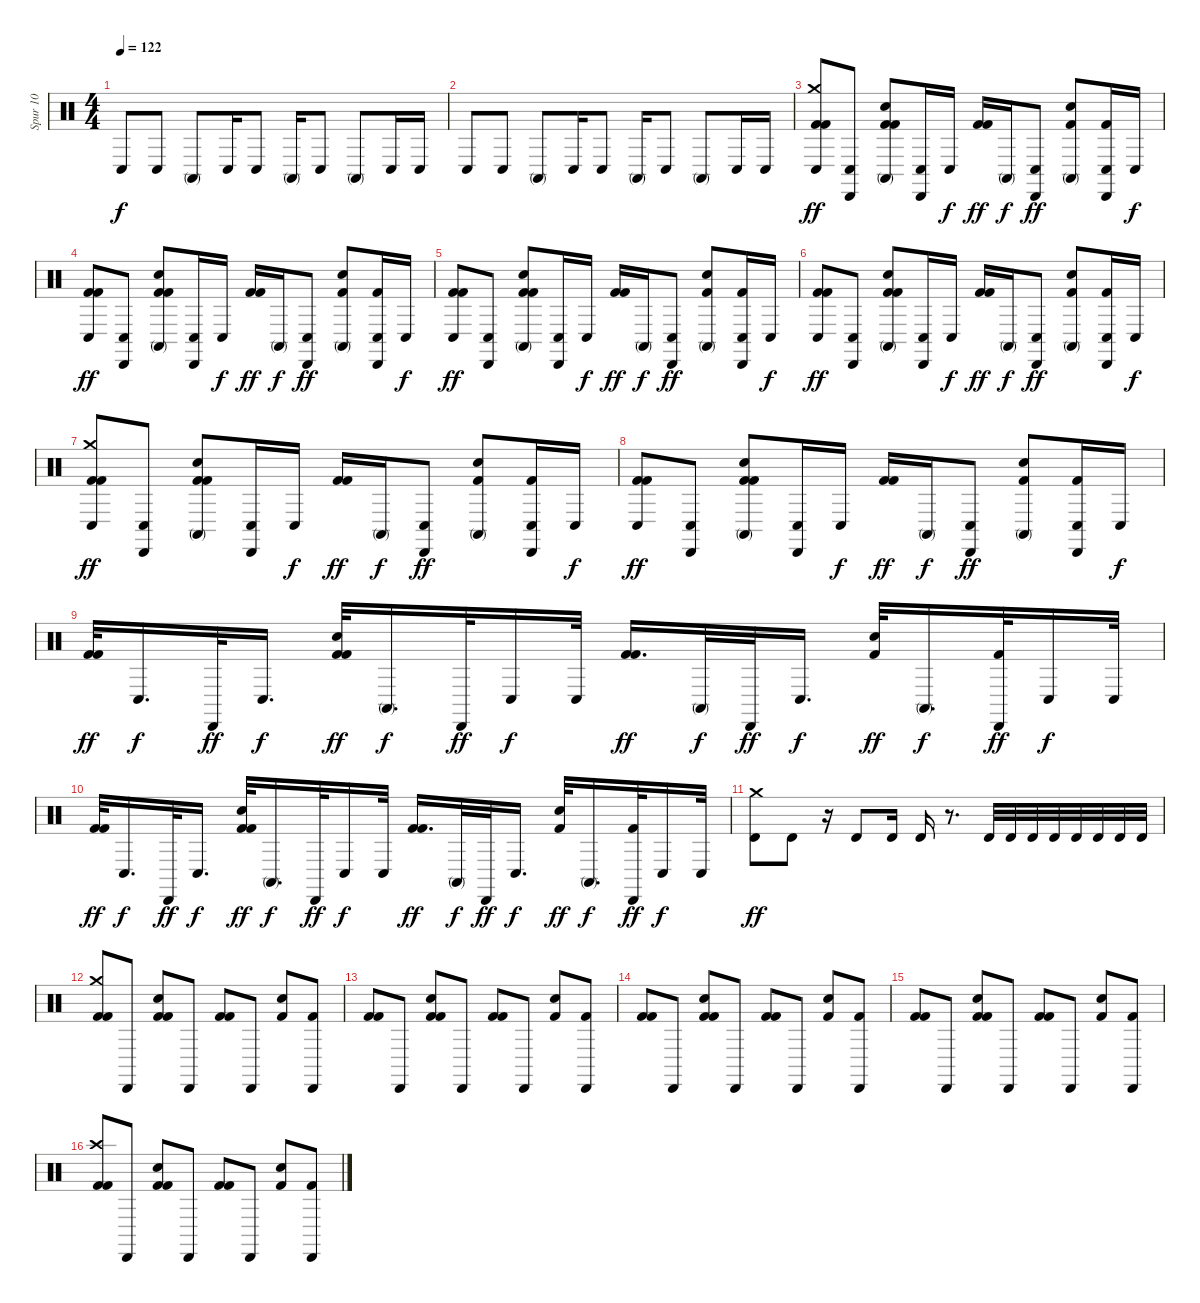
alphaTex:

\track ("Spur 10" "Spur 10") {instrument percussion}
\staff {score}
\articulation defaults
\ts (4 4)
\tempo 122
\clef neutral
\ks c "Conga low (hit)".8{dy f} "Conga low (hit)".8 "Conga high (mute)".8 "Conga low (hit)".16 "Conga low (hit)".8 "Conga high (mute)".16 "Conga low (hit)".8 "Conga high (mute)".8 "Conga low (hit)".16 "Conga low (hit)".16
|
"Conga low (hit)".8 "Conga low (hit)".8 "Conga high (mute)".8 "Conga low (hit)".16 "Conga low (hit)".8 "Conga high (mute)".16 "Conga low (hit)".8 "Conga high (mute)".8 "Conga low (hit)".16 "Conga low (hit)".16 |
("Crash medium (hit)" "Conga low (hit)" "Kick (hit) 2" "Kick (hit) 2").8{dy ff} ("Conga low (hit)" "Cabasa (hit)").8 ("Conga high (mute)" "Kick (hit) 2" "Kick (hit) 2" "Hand Clap (hit)").8 ("Conga low (hit)" "Cabasa (hit)").16 "Conga low (hit)".16{dy f} ("Kick (hit) 2" "Kick (hit) 2").16{dy ff} "Conga high (mute)".16{dy f} ("Conga low (hit)" "Cabasa (hit)").8{dy ff} ("Hand Clap (hit)" "Conga high (mute)" "Kick (hit) 2").8 ("Conga low (hit)" "Cabasa (hit)" "Kick (hit) 2").16 "Conga low (hit)".16{dy f} |
("Kick (hit) 2" "Kick (hit) 2" "Conga low (hit)").8{dy ff} ("Cabasa (hit)" "Conga low (hit)").8 ("Kick (hit) 2" "Kick (hit) 2" "Conga high (mute)" "Hand Clap (hit)").8 ("Cabasa (hit)" "Conga low (hit)").16 "Conga low (hit)".16{dy f} ("Kick (hit) 2" "Kick (hit) 2").16{dy ff} "Conga high (mute)".16{dy f} ("Cabasa (hit)" "Conga low (hit)").8{dy ff} ("Hand Clap (hit)" "Kick (hit) 2" "Conga high (mute)").8 ("Cabasa (hit)" "Conga low (hit)" "Kick (hit) 2").16 "Conga low (hit)".16{dy f} |
("Conga low (hit)" "Kick (hit) 2" "Kick (hit) 2").8{dy ff} ("Conga low (hit)" "Cabasa (hit)").8 ("Conga high (mute)" "Kick (hit) 2" "Kick (hit) 2" "Hand Clap (hit)").8 ("Conga low (hit)" "Cabasa (hit)").16 "Conga low (hit)".16{dy f} ("Kick (hit) 2" "Kick (hit) 2").16{dy ff} "Conga high (mute)".16{dy f} ("Conga low (hit)" "Cabasa (hit)").8{dy ff} ("Hand Clap (hit)" "Conga high (mute)" "Kick (hit) 2").8 ("Conga low (hit)" "Cabasa (hit)" "Kick (hit) 2").16 "Conga low (hit)".16{dy f} |
("Conga low (hit)" "Kick (hit) 2" "Kick (hit) 2").8{dy ff} ("Conga low (hit)" "Cabasa (hit)").8 ("Conga high (mute)" "Kick (hit) 2" "Kick (hit) 2" "Hand Clap (hit)").8 ("Conga low (hit)" "Cabasa (hit)").16 "Conga low (hit)".16{dy f} ("Kick (hit) 2" "Kick (hit) 2").16{dy ff} "Conga high (mute)".16{dy f} ("Conga low (hit)" "Cabasa (hit)").8{dy ff} ("Hand Clap (hit)" "Conga high (mute)" "Kick (hit) 2").8 ("Conga low (hit)" "Cabasa (hit)" "Kick (hit) 2").16 "Conga low (hit)".16{dy f} |
("Crash medium (hit)" "Conga low (hit)" "Kick (hit) 2" "Kick (hit) 2").8{dy ff} ("Conga low (hit)" "Cabasa (hit)").8 ("Conga high (mute)" "Kick (hit) 2" "Kick (hit) 2" "Hand Clap (hit)").8 ("Conga low (hit)" "Cabasa (hit)").16 "Conga low (hit)".16{dy f} ("Kick (hit) 2" "Kick (hit) 2").16{dy ff} "Conga high (mute)".16{dy f} ("Conga low (hit)" "Cabasa (hit)").8{dy ff} ("Hand Clap (hit)" "Conga high (mute)" "Kick (hit) 2").8 ("Conga low (hit)" "Cabasa (hit)" "Kick (hit) 2").16 "Conga low (hit)".16{dy f} |
("Conga low (hit)" "Kick (hit) 2" "Kick (hit) 2").8{dy ff} ("Conga low (hit)" "Cabasa (hit)").8 ("Conga high (mute)" "Kick (hit) 2" "Kick (hit) 2" "Hand Clap (hit)").8 ("Conga low (hit)" "Cabasa (hit)").16 "Conga low (hit)".16{dy f} ("Kick (hit) 2" "Kick (hit) 2").16{dy ff} "Conga high (mute)".16{dy f} ("Conga low (hit)" "Cabasa (hit)").8{dy ff} ("Hand Clap (hit)" "Conga high (mute)" "Kick (hit) 2").8 ("Conga low (hit)" "Cabasa (hit)" "Kick (hit) 2").16 "Conga low (hit)".16{dy f} |
("Kick (hit) 2" "Kick (hit) 2").32{dy ff} "Conga low (hit)".16{d dy f} "Cabasa (hit)".32{dy ff} "Conga low (hit)".16{d dy f} ("Kick (hit) 2" "Kick (hit) 2" "Hand Clap (hit)").32{dy ff} "Conga high (mute)".16{d dy f} "Cabasa (hit)".32{dy ff} "Conga low (hit)".16{dy f} "Conga low (hit)".32 ("Kick (hit) 2" "Kick (hit) 2").16{d dy ff} "Conga high (mute)".32{dy f} "Cabasa (hit)".32{dy ff} "Conga low (hit)".16{d dy f} ("Hand Clap (hit)" "Kick (hit) 2").32{dy ff} "Conga high (mute)".16{d dy f} ("Cabasa (hit)" "Kick (hit) 2").32{dy ff} "Conga low (hit)".16{dy f} "Conga low (hit)".32 |
("Kick (hit) 2" "Kick (hit) 2").32{dy ff} "Conga low (hit)".16{d dy f} "Cabasa (hit)".32{dy ff} "Conga low (hit)".16{d dy f} ("Kick (hit) 2" "Kick (hit) 2" "Hand Clap (hit)").32{dy ff} "Conga high (mute)".16{d dy f} "Cabasa (hit)".32{dy ff} "Conga low (hit)".16{dy f} "Conga low (hit)".32 ("Kick (hit) 2" "Kick (hit) 2").16{d dy ff} "Conga high (mute)".32{dy f} "Cabasa (hit)".32{dy ff} "Conga low (hit)".16{d dy f} ("Hand Clap (hit)" "Kick (hit) 2").32{dy ff} "Conga high (mute)".16{d dy f} ("Cabasa (hit)" "Kick (hit) 2").32{dy ff} "Conga low (hit)".16{dy f} "Conga low (hit)".32 |
("Timbale high (hit)" "Crash medium (hit)").8{dy ff} "Timbale high (hit)".8 r.16 "Timbale high (hit)".8 "Timbale high (hit)".16 "Timbale high (hit)".16 r.8{d} "Timbale high (hit)".32 "Timbale high (hit)".32 "Timbale high (hit)".32 "Timbale high (hit)".32 "Timbale high (hit)".32 "Timbale high (hit)".32 "Timbale high (hit)".32 "Timbale high (hit)".32 |
("Crash medium (hit)" "Kick (hit) 2" "Kick (hit) 2").8 "Cabasa (hit)".8 ("Kick (hit) 2" "Kick (hit) 2" "Hand Clap (hit)").8 "Cabasa (hit)".8 ("Kick (hit) 2" "Kick (hit) 2").8 "Cabasa (hit)".8 ("Hand Clap (hit)" "Kick (hit) 2").8 ("Cabasa (hit)" "Kick (hit) 2").8 |
("Kick (hit) 2" "Kick (hit) 2").8 "Cabasa (hit)".8 ("Kick (hit) 2" "Kick (hit) 2" "Hand Clap (hit)").8 "Cabasa (hit)".8 ("Kick (hit) 2" "Kick (hit) 2").8 "Cabasa (hit)".8 ("Hand Clap (hit)" "Kick (hit) 2").8 ("Cabasa (hit)" "Kick (hit) 2").8 |
("Kick (hit) 2" "Kick (hit) 2").8 "Cabasa (hit)".8 ("Kick (hit) 2" "Kick (hit) 2" "Hand Clap (hit)").8 "Cabasa (hit)".8 ("Kick (hit) 2" "Kick (hit) 2").8 "Cabasa (hit)".8 ("Hand Clap (hit)" "Kick (hit) 2").8 ("Cabasa (hit)" "Kick (hit) 2").8 |
("Kick (hit) 2" "Kick (hit) 2").8 "Cabasa (hit)".8 ("Kick (hit) 2" "Kick (hit) 2" "Hand Clap (hit)").8 "Cabasa (hit)".8 ("Kick (hit) 2" "Kick (hit) 2").8 "Cabasa (hit)".8 ("Hand Clap (hit)" "Kick (hit) 2").8 ("Cabasa (hit)" "Kick (hit) 2").8 |
("Crash high (hit)" "Kick (hit) 2" "Kick (hit) 2").8 "Cabasa (hit)".8 ("Kick (hit) 2" "Kick (hit) 2" "Hand Clap (hit)").8 "Cabasa (hit)".8 ("Kick (hit) 2" "Kick (hit) 2").8 "Cabasa (hit)".8 ("Hand Clap (hit)" "Kick (hit) 2").8 ("Cabasa (hit)" "Kick (hit) 2").8
